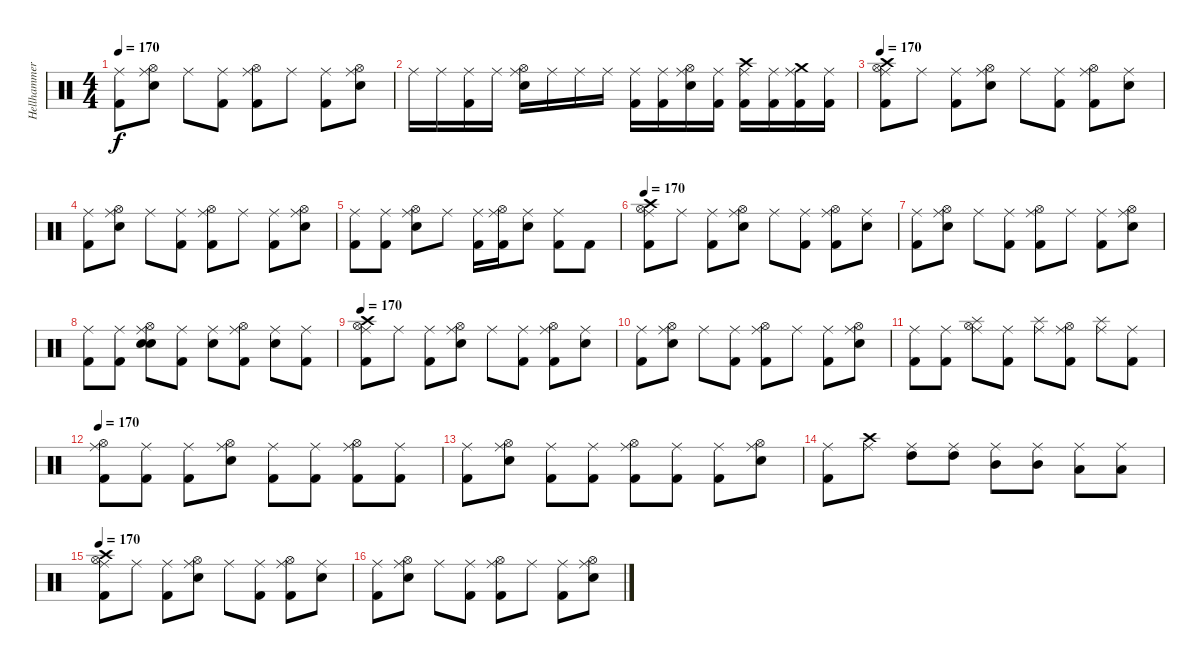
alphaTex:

\track ("Hellhammer" "Hellhammer") {instrument percussion}
\staff {score}
\articulation defaults
\ts (4 4)
\tempo 170
\clef neutral
\ks c
("Ride (middle)" "Kick (hit) 2").8{dy f} ("Ride (middle)" "Hi-Hat (open)" "Snare (hit) 2").8 "Ride (middle)".8 ("Ride (middle)" "Kick (hit) 2").8 ("Ride (middle)" "Hi-Hat (open)" "Kick (hit) 2").8 "Ride (middle)".8 ("Ride (middle)" "Kick (hit) 2").8 ("Ride (middle)" "Hi-Hat (open)" "Snare (hit) 2").8 |
"Ride (middle)".16 "Ride (middle)".16 ("Ride (middle)" "Kick (hit) 2").16 "Ride (middle)".16 ("Ride (middle)" "Hi-Hat (open)" "Snare (hit) 2").16 "Ride (middle)".16 "Ride (middle)".16 "Ride (middle)".16 ("Ride (middle)" "Kick (hit) 2").16 ("Ride (middle)" "Kick (hit) 2").16 ("Ride (middle)" "Hi-Hat (open)" "Snare (hit) 2").16 ("Ride (middle)" "Kick (hit) 2").16 ("Ride (middle)" "Crash high (hit)" "Kick (hit) 2").16 ("Ride (middle)" "Kick (hit) 2").16 ("Ride (middle)" "Crash medium (hit)" "Kick (hit) 2").16 ("Ride (middle)" "Kick (hit) 2").16 |
\tempo 170
("Ride (middle)" "Crash high (hit)" "Hi-Hat (open)" "Kick (hit) 2").8 "Ride (middle)".8 ("Ride (middle)" "Kick (hit) 2").8 ("Ride (middle)" "Hi-Hat (open)" "Snare (hit) 2").8 "Ride (middle)".8 ("Ride (middle)" "Kick (hit) 2").8 ("Ride (middle)" "Hi-Hat (open)" "Kick (hit) 2").8 ("Ride (middle)" "Snare (hit)").8 |
("Ride (middle)" "Kick (hit) 2").8 ("Ride (middle)" "Hi-Hat (open)" "Snare (hit) 2").8 "Ride (middle)".8 ("Ride (middle)" "Kick (hit) 2").8 ("Ride (middle)" "Hi-Hat (open)" "Kick (hit) 2").8 "Ride (middle)".8 ("Ride (middle)" "Kick (hit) 2").8 ("Ride (middle)" "Hi-Hat (open)" "Snare (hit) 2").8 |
("Ride (middle)" "Kick (hit) 2").8 ("Ride (middle)" "Kick (hit) 2").8 ("Ride (middle)" "Hi-Hat (open)" "Snare (hit) 2").8 "Ride (middle)".8 ("Ride (middle)" "Kick (hit) 2").16 ("Ride (middle)" "Hi-Hat (open)" "Kick (hit) 2").16 ("Ride (middle)" "Snare (hit) 2").8 ("Ride (middle)" "Kick (hit) 2").8 "Kick (hit) 2".8 |
\tempo 170
("Ride (middle)" "Crash high (hit)" "Hi-Hat (open)" "Kick (hit) 2").8 "Ride (middle)".8 ("Ride (middle)" "Kick (hit) 2").8 ("Ride (middle)" "Hi-Hat (open)" "Snare (hit) 2").8 "Ride (middle)".8 ("Ride (middle)" "Kick (hit) 2").8 ("Ride (middle)" "Hi-Hat (open)" "Kick (hit) 2").8 ("Ride (middle)" "Snare (hit)").8 |
("Ride (middle)" "Kick (hit) 2").8 ("Ride (middle)" "Hi-Hat (open)" "Snare (hit) 2").8 "Ride (middle)".8 ("Ride (middle)" "Kick (hit) 2").8 ("Ride (middle)" "Hi-Hat (open)" "Kick (hit) 2").8 "Ride (middle)".8 ("Ride (middle)" "Kick (hit) 2").8 ("Ride (middle)" "Hi-Hat (open)" "Snare (hit) 2").8 |
("Ride (middle)" "Kick (hit) 2").8 ("Ride (middle)" "Kick (hit) 2").8 ("Ride (middle)" "Snare (hit) 2" "Hi-Hat (open)" "Snare (hit) 2").8 ("Ride (middle)" "Kick (hit) 2").8 ("Ride (middle)" "Snare (hit) 2").8 ("Ride (middle)" "Hi-Hat (open)" "Kick (hit) 2").8 ("Ride (middle)" "Snare (hit) 2").8 ("Ride (middle)" "Kick (hit) 2").8 |
\tempo 170
("Ride (middle)" "Crash high (hit)" "Hi-Hat (open)" "Kick (hit) 2").8 "Ride (middle)".8 ("Ride (middle)" "Kick (hit) 2").8 ("Ride (middle)" "Hi-Hat (open)" "Snare (hit) 2").8 "Ride (middle)".8 ("Ride (middle)" "Kick (hit) 2").8 ("Ride (middle)" "Hi-Hat (open)" "Kick (hit) 2").8 ("Ride (middle)" "Snare (hit)").8 |
("Ride (middle)" "Kick (hit) 2").8 ("Ride (middle)" "Hi-Hat (open)" "Snare (hit) 2").8 "Ride (middle)".8 ("Ride (middle)" "Kick (hit) 2").8 ("Ride (middle)" "Hi-Hat (open)" "Kick (hit) 2").8 "Ride (middle)".8 ("Ride (middle)" "Kick (hit) 2").8 ("Ride (middle)" "Hi-Hat (open)" "Snare (hit) 2").8 |
("Ride (middle)" "Kick (hit) 2").8 ("Ride (middle)" "Kick (hit) 2").8 ("Ride (middle)" "Splash (hit)" "Hi-Hat (open)").8 ("Ride (middle)" "Kick (hit) 2").8 ("Ride (middle)" "Splash (hit)").8 ("Ride (middle)" "Hi-Hat (open)" "Kick (hit) 2").8 ("Ride (middle)" "Splash (hit)").8 ("Ride (middle)" "Kick (hit) 2").8 |
\tempo 170
("Ride (middle)" "Hi-Hat (open)" "Kick (hit) 2").8 ("Ride (middle)" "Kick (hit) 2").8 ("Ride (middle)" "Kick (hit) 2").8 ("Ride (middle)" "Hi-Hat (open)" "Snare (hit) 2").8 ("Ride (middle)" "Kick (hit) 2").8 ("Ride (middle)" "Kick (hit) 2").8 ("Ride (middle)" "Hi-Hat (open)" "Kick (hit) 2").8 ("Ride (middle)" "Kick (hit) 2").8 |
("Ride (middle)" "Kick (hit) 2").8 ("Ride (middle)" "Hi-Hat (open)" "Snare (hit) 2").8 ("Ride (middle)" "Kick (hit) 2").8 ("Ride (middle)" "Kick (hit) 2").8 ("Ride (middle)" "Hi-Hat (open)" "Kick (hit) 2").8 ("Ride (middle)" "Kick (hit) 2").8 ("Ride (middle)" "Kick (hit) 2").8 ("Ride (middle)" "Hi-Hat (open)" "Snare (hit) 2").8 |
("Ride (middle)" "Kick (hit) 2").8 ("Ride (middle)" "Crash high (hit)").8 ("Ride (middle)" "High Tom (hit)").8 ("Ride (middle)" "High Tom (hit)").8 ("Ride (middle)" "Mid Tom (hit)").8 ("Ride (middle)" "Mid Tom (hit)").8 ("Ride (middle)" "Low Tom (hit)").8 ("Ride (middle)" "Low Tom (hit)").8 |
\tempo 170
("Crash high (hit)" "Ride (middle)" "Hi-Hat (open)" "Kick (hit) 2").8 "Ride (middle)".8 ("Ride (middle)" "Kick (hit) 2").8 ("Ride (middle)" "Hi-Hat (open)" "Snare (hit) 2").8 "Ride (middle)".8 ("Ride (middle)" "Kick (hit) 2").8 ("Ride (middle)" "Hi-Hat (open)" "Kick (hit) 2").8 ("Ride (middle)" "Snare (hit)").8 |
("Ride (middle)" "Kick (hit) 2").8 ("Ride (middle)" "Hi-Hat (open)" "Snare (hit) 2").8 "Ride (middle)".8 ("Ride (middle)" "Kick (hit) 2").8 ("Ride (middle)" "Hi-Hat (open)" "Kick (hit) 2").8 "Ride (middle)".8 ("Ride (middle)" "Kick (hit) 2").8 ("Ride (middle)" "Hi-Hat (open)" "Snare (hit) 2").8
